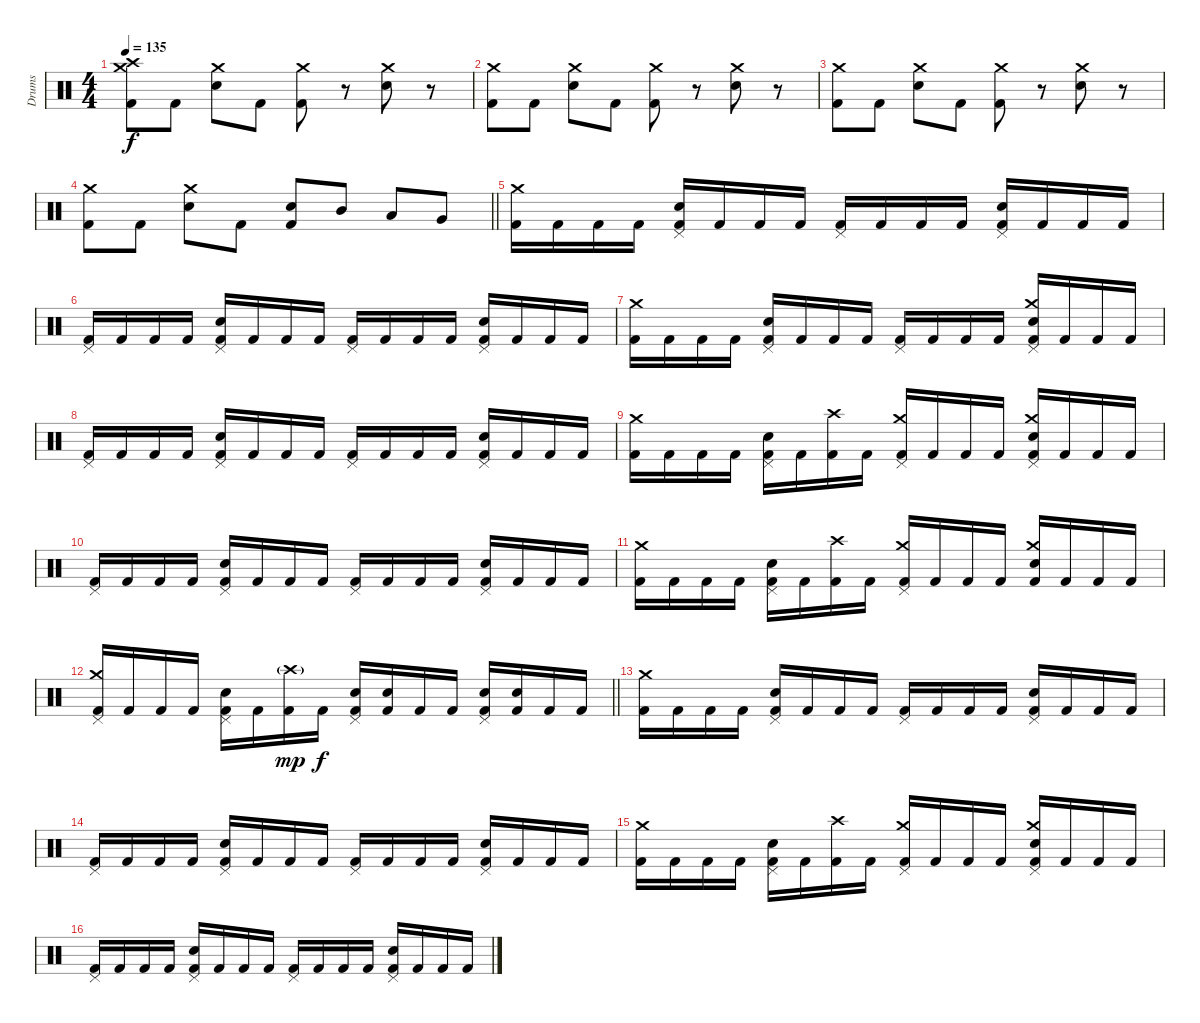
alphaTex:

\track ("Drums" "Drums") {instrument percussion}
\staff {score}
\articulation defaults
\ts (4 4)
\tempo 135
\clef neutral
\ks c
("Kick (hit) 2" "Crash medium (hit)" "Crash high (hit)").8{dy f} "Kick (hit) 2".8 ("Snare (hit) 2" "Crash medium (hit)").8 "Kick (hit) 2".8 ("Kick (hit) 2" "Crash medium (hit)").8 r.8 ("Snare (hit) 2" "Crash medium (hit)").8 r.8 |
("Kick (hit) 2" "Crash medium (hit)").8 "Kick (hit) 2".8 ("Snare (hit) 2" "Crash medium (hit)").8 "Kick (hit) 2".8 ("Kick (hit) 2" "Crash medium (hit)").8 r.8 ("Snare (hit) 2" "Crash medium (hit)").8 r.8 |
("Kick (hit) 2" "Crash medium (hit)").8 "Kick (hit) 2".8 ("Snare (hit) 2" "Crash medium (hit)").8 "Kick (hit) 2".8 ("Kick (hit) 2" "Crash medium (hit)").8 r.8 ("Snare (hit) 2" "Crash medium (hit)").8 r.8 |
\barLineRight lightlight
("Kick (hit) 2" "Crash medium (hit)").8 "Kick (hit) 2".8 ("Snare (hit) 2" "Crash medium (hit)").8 "Kick (hit) 2".8 ("Kick (hit) 2" "Snare (hit) 2").8 "Mid Tom (hit)".8 "Low Tom (hit)".8 "Very Low Tom (hit)".8 |
\section ("" "")
("Kick (hit) 2" "Crash medium (hit)").16 "Kick (hit) 2".16 "Kick (hit) 2".16 "Kick (hit) 2".16 ("Kick (hit) 2" "Snare (hit) 2" "Pedal Hi-Hat (hit)").16 "Kick (hit) 2".16 "Kick (hit) 2".16 "Kick (hit) 2".16 ("Kick (hit) 2" "Pedal Hi-Hat (hit)").16 "Kick (hit) 2".16 "Kick (hit) 2".16 "Kick (hit) 2".16 ("Kick (hit) 2" "Snare (hit) 2" "Pedal Hi-Hat (hit)").16 "Kick (hit) 2".16 "Kick (hit) 2".16 "Kick (hit) 2".16 |
("Kick (hit) 2" "Pedal Hi-Hat (hit)").16 "Kick (hit) 2".16 "Kick (hit) 2".16 "Kick (hit) 2".16 ("Kick (hit) 2" "Snare (hit) 2" "Pedal Hi-Hat (hit)").16 "Kick (hit) 2".16 "Kick (hit) 2".16 "Kick (hit) 2".16 ("Kick (hit) 2" "Pedal Hi-Hat (hit)").16 "Kick (hit) 2".16 "Kick (hit) 2".16 "Kick (hit) 2".16 ("Kick (hit) 2" "Snare (hit) 2" "Pedal Hi-Hat (hit)").16 "Kick (hit) 2".16 "Kick (hit) 2".16 "Kick (hit) 2".16 |
("Kick (hit) 2" "Crash medium (hit)").16 "Kick (hit) 2".16 "Kick (hit) 2".16 "Kick (hit) 2".16 ("Kick (hit) 2" "Snare (hit) 2" "Pedal Hi-Hat (hit)").16 "Kick (hit) 2".16 "Kick (hit) 2".16 "Kick (hit) 2".16 ("Kick (hit) 2" "Pedal Hi-Hat (hit)").16 "Kick (hit) 2".16 "Kick (hit) 2".16 "Kick (hit) 2".16 ("Kick (hit) 2" "Snare (hit) 2" "Pedal Hi-Hat (hit)" "Crash medium (hit)").16 "Kick (hit) 2".16 "Kick (hit) 2".16 "Kick (hit) 2".16 |
("Kick (hit) 2" "Pedal Hi-Hat (hit)").16 "Kick (hit) 2".16 "Kick (hit) 2".16 "Kick (hit) 2".16 ("Kick (hit) 2" "Snare (hit) 2" "Pedal Hi-Hat (hit)").16 "Kick (hit) 2".16 "Kick (hit) 2".16 "Kick (hit) 2".16 ("Kick (hit) 2" "Pedal Hi-Hat (hit)").16 "Kick (hit) 2".16 "Kick (hit) 2".16 "Kick (hit) 2".16 ("Kick (hit) 2" "Snare (hit) 2" "Pedal Hi-Hat (hit)").16 "Kick (hit) 2".16 "Kick (hit) 2".16 "Kick (hit) 2".16 |
("Kick (hit) 2" "Crash medium (hit)").16 "Kick (hit) 2".16 "Kick (hit) 2".16 "Kick (hit) 2".16 ("Kick (hit) 2" "Snare (hit) 2" "Pedal Hi-Hat (hit)").16 "Kick (hit) 2".16 ("Kick (hit) 2" "Crash high (hit)").16 "Kick (hit) 2".16 ("Kick (hit) 2" "Pedal Hi-Hat (hit)" "Crash medium (hit)").16 "Kick (hit) 2".16 "Kick (hit) 2".16 "Kick (hit) 2".16 ("Kick (hit) 2" "Snare (hit) 2" "Pedal Hi-Hat (hit)" "Crash medium (hit)").16 "Kick (hit) 2".16 "Kick (hit) 2".16 "Kick (hit) 2".16 |
("Kick (hit) 2" "Pedal Hi-Hat (hit)").16 "Kick (hit) 2".16 "Kick (hit) 2".16 "Kick (hit) 2".16 ("Kick (hit) 2" "Snare (hit) 2" "Pedal Hi-Hat (hit)").16 "Kick (hit) 2".16 "Kick (hit) 2".16 "Kick (hit) 2".16 ("Kick (hit) 2" "Pedal Hi-Hat (hit)").16 "Kick (hit) 2".16 "Kick (hit) 2".16 "Kick (hit) 2".16 ("Kick (hit) 2" "Snare (hit) 2" "Pedal Hi-Hat (hit)").16 "Kick (hit) 2".16 "Kick (hit) 2".16 "Kick (hit) 2".16 |
("Kick (hit) 2" "Crash medium (hit)").16 "Kick (hit) 2".16 "Kick (hit) 2".16 "Kick (hit) 2".16 ("Kick (hit) 2" "Snare (hit) 2" "Pedal Hi-Hat (hit)").16 "Kick (hit) 2".16 ("Kick (hit) 2" "Crash high (hit)").16 "Kick (hit) 2".16 ("Kick (hit) 2" "Pedal Hi-Hat (hit)" "Crash medium (hit)").16 "Kick (hit) 2".16 "Kick (hit) 2".16 "Kick (hit) 2".16 ("Kick (hit) 2" "Snare (hit) 2" "Crash medium (hit)").16 "Kick (hit) 2".16 "Kick (hit) 2".16 "Kick (hit) 2".16 |
\barLineRight lightlight
("Kick (hit) 2" "Pedal Hi-Hat (hit)" "Crash medium (hit)").16 "Kick (hit) 2".16 "Kick (hit) 2".16 "Kick (hit) 2".16 ("Kick (hit) 2" "Snare (hit) 2" "Pedal Hi-Hat (hit)").16 "Kick (hit) 2".16 ("Kick (hit) 2" "Crash high (hit)"{g}).16{dy mp} "Kick (hit) 2".16{dy f} ("Kick (hit) 2" "Snare (hit) 2" "Pedal Hi-Hat (hit)").16 ("Kick (hit) 2" "Snare (hit) 2").16 "Kick (hit) 2".16 "Kick (hit) 2".16 ("Kick (hit) 2" "Snare (hit) 2" "Pedal Hi-Hat (hit)").16 ("Kick (hit) 2" "Snare (hit) 2").16 "Kick (hit) 2".16 "Kick (hit) 2".16 |
\section ("" "")
("Kick (hit) 2" "Crash medium (hit)").16 "Kick (hit) 2".16 "Kick (hit) 2".16 "Kick (hit) 2".16 ("Kick (hit) 2" "Snare (hit) 2" "Pedal Hi-Hat (hit)").16 "Kick (hit) 2".16 "Kick (hit) 2".16 "Kick (hit) 2".16 ("Kick (hit) 2" "Pedal Hi-Hat (hit)").16 "Kick (hit) 2".16 "Kick (hit) 2".16 "Kick (hit) 2".16 ("Kick (hit) 2" "Snare (hit) 2" "Pedal Hi-Hat (hit)").16 "Kick (hit) 2".16 "Kick (hit) 2".16 "Kick (hit) 2".16 |
("Kick (hit) 2" "Pedal Hi-Hat (hit)").16 "Kick (hit) 2".16 "Kick (hit) 2".16 "Kick (hit) 2".16 ("Kick (hit) 2" "Snare (hit) 2" "Pedal Hi-Hat (hit)").16 "Kick (hit) 2".16 "Kick (hit) 2".16 "Kick (hit) 2".16 ("Kick (hit) 2" "Pedal Hi-Hat (hit)").16 "Kick (hit) 2".16 "Kick (hit) 2".16 "Kick (hit) 2".16 ("Kick (hit) 2" "Snare (hit) 2" "Pedal Hi-Hat (hit)").16 "Kick (hit) 2".16 "Kick (hit) 2".16 "Kick (hit) 2".16 |
("Kick (hit) 2" "Crash medium (hit)").16 "Kick (hit) 2".16 "Kick (hit) 2".16 "Kick (hit) 2".16 ("Kick (hit) 2" "Snare (hit) 2" "Pedal Hi-Hat (hit)").16 "Kick (hit) 2".16 ("Kick (hit) 2" "Crash high (hit)").16 "Kick (hit) 2".16 ("Kick (hit) 2" "Pedal Hi-Hat (hit)" "Crash medium (hit)").16 "Kick (hit) 2".16 "Kick (hit) 2".16 "Kick (hit) 2".16 ("Kick (hit) 2" "Snare (hit) 2" "Pedal Hi-Hat (hit)" "Crash medium (hit)").16 "Kick (hit) 2".16 "Kick (hit) 2".16 "Kick (hit) 2".16 |
("Kick (hit) 2" "Pedal Hi-Hat (hit)").16 "Kick (hit) 2".16 "Kick (hit) 2".16 "Kick (hit) 2".16 ("Kick (hit) 2" "Snare (hit) 2" "Pedal Hi-Hat (hit)").16 "Kick (hit) 2".16 "Kick (hit) 2".16 "Kick (hit) 2".16 ("Kick (hit) 2" "Pedal Hi-Hat (hit)").16 "Kick (hit) 2".16 "Kick (hit) 2".16 "Kick (hit) 2".16 ("Kick (hit) 2" "Snare (hit) 2" "Pedal Hi-Hat (hit)").16 "Kick (hit) 2".16 "Kick (hit) 2".16 "Kick (hit) 2".16
